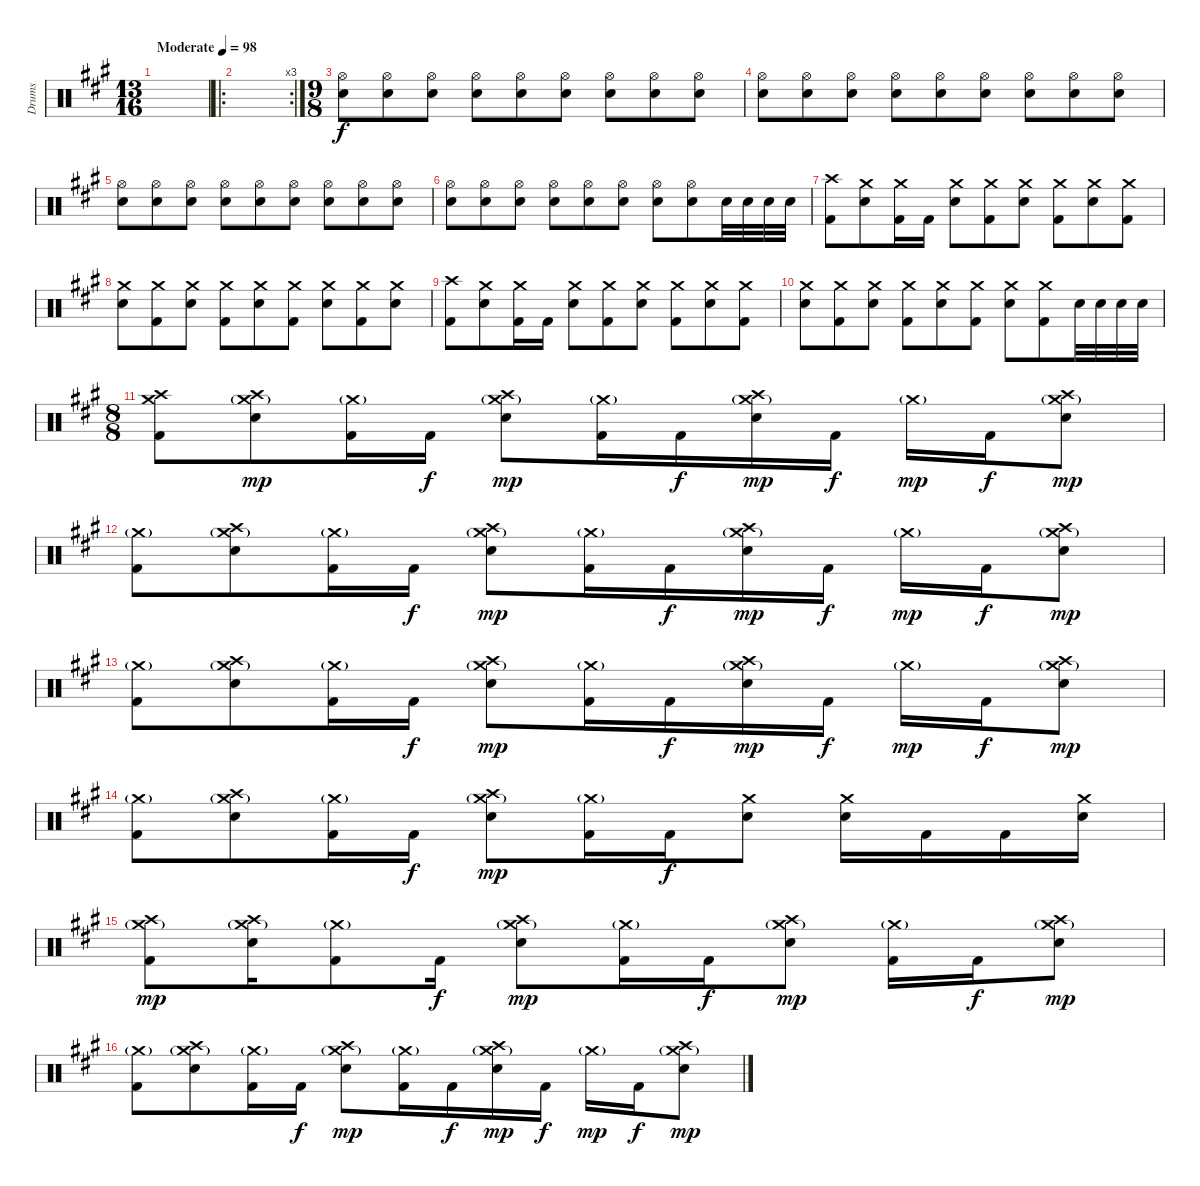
\track ("Drums" "Drums") {instrument percussion}
\staff {score}
\articulation defaults
\ts (13 16)
\tempo (98 "Moderate")
\clef neutral
\ks a
|
\ro
\rc 3
|
\ts (9 8)
("Hi-Hat (open)" "Snare (hit) 2").8 ("Hi-Hat (open)" "Snare (hit) 2").8 ("Hi-Hat (open)" "Snare (hit) 2").8 ("Hi-Hat (open)" "Snare (hit) 2").8 ("Hi-Hat (open)" "Snare (hit) 2").8 ("Hi-Hat (open)" "Snare (hit) 2").8 ("Hi-Hat (open)" "Snare (hit) 2").8 ("Hi-Hat (open)" "Snare (hit) 2").8 ("Hi-Hat (open)" "Snare (hit) 2").8 |
("Hi-Hat (open)" "Snare (hit) 2").8 ("Hi-Hat (open)" "Snare (hit) 2").8 ("Hi-Hat (open)" "Snare (hit) 2").8 ("Hi-Hat (open)" "Snare (hit) 2").8 ("Hi-Hat (open)" "Snare (hit) 2").8 ("Hi-Hat (open)" "Snare (hit) 2").8 ("Hi-Hat (open)" "Snare (hit) 2").8 ("Hi-Hat (open)" "Snare (hit) 2").8 ("Hi-Hat (open)" "Snare (hit) 2").8 |
("Hi-Hat (open)" "Snare (hit) 2").8 ("Hi-Hat (open)" "Snare (hit) 2").8 ("Hi-Hat (open)" "Snare (hit) 2").8 ("Hi-Hat (open)" "Snare (hit) 2").8 ("Hi-Hat (open)" "Snare (hit) 2").8 ("Hi-Hat (open)" "Snare (hit) 2").8 ("Hi-Hat (open)" "Snare (hit) 2").8 ("Hi-Hat (open)" "Snare (hit) 2").8 ("Hi-Hat (open)" "Snare (hit) 2").8 |
("Hi-Hat (open)" "Snare (hit) 2").8 ("Hi-Hat (open)" "Snare (hit) 2").8 ("Hi-Hat (open)" "Snare (hit) 2").8 ("Hi-Hat (open)" "Snare (hit) 2").8 ("Hi-Hat (open)" "Snare (hit) 2").8 ("Hi-Hat (open)" "Snare (hit) 2").8 ("Hi-Hat (open)" "Snare (hit) 2").8 ("Hi-Hat (open)" "Snare (hit) 2").8 "Snare (hit) 2".32 "Snare (hit) 2".32 "Snare (hit) 2".32 "Snare (hit) 2".32 |
("Crash high (hit)" "Kick (hit) 2").8 ("Crash medium (hit)" "Snare (hit) 2").8 ("Crash medium (hit)" "Kick (hit) 2").16 "Kick (hit) 2".16 ("Crash medium (hit)" "Snare (hit) 2").8 ("Crash medium (hit)" "Kick (hit) 2").8 ("Crash medium (hit)" "Snare (hit) 2").8 ("Crash medium (hit)" "Kick (hit) 2").8 ("Crash medium (hit)" "Snare (hit) 2").8 ("Crash medium (hit)" "Kick (hit) 2").8 |
("Crash medium (hit)" "Snare (hit) 2").8 ("Crash medium (hit)" "Kick (hit) 2").8 ("Crash medium (hit)" "Snare (hit) 2").8 ("Crash medium (hit)" "Kick (hit) 2").8 ("Crash medium (hit)" "Snare (hit) 2").8 ("Crash medium (hit)" "Kick (hit) 2").8 ("Crash medium (hit)" "Snare (hit) 2").8 ("Crash medium (hit)" "Kick (hit) 2").8 ("Crash medium (hit)" "Snare (hit) 2").8 |
("Crash high (hit)" "Kick (hit) 2").8 ("Crash medium (hit)" "Snare (hit) 2").8 ("Crash medium (hit)" "Kick (hit) 2").16 "Kick (hit) 2".16 ("Crash medium (hit)" "Snare (hit) 2").8 ("Crash medium (hit)" "Kick (hit) 2").8 ("Crash medium (hit)" "Snare (hit) 2").8 ("Crash medium (hit)" "Kick (hit) 2").8 ("Crash medium (hit)" "Snare (hit) 2").8 ("Crash medium (hit)" "Kick (hit) 2").8 |
("Crash medium (hit)" "Snare (hit) 2").8 ("Crash medium (hit)" "Kick (hit) 2").8 ("Crash medium (hit)" "Snare (hit) 2").8 ("Crash medium (hit)" "Kick (hit) 2").8 ("Crash medium (hit)" "Snare (hit) 2").8 ("Crash medium (hit)" "Kick (hit) 2").8 ("Crash medium (hit)" "Snare (hit) 2").8 ("Crash medium (hit)" "Kick (hit) 2").8 "Snare (hit) 2".32 "Snare (hit) 2".32 "Snare (hit) 2".32 "Snare (hit) 2".32 |
\ts (8 8)
("Crash high (hit)" "Crash medium (hit)" "Kick (hit) 2").8 ("Crash high (hit)" "Crash medium (hit)"{g} "Snare (hit) 2").8{dy mp} ("Crash medium (hit)"{g} "Kick (hit) 2").16 "Kick (hit) 2".16{dy f} ("Crash high (hit)" "Crash medium (hit)"{g} "Snare (hit) 2").8{dy mp} ("Crash medium (hit)"{g} "Kick (hit) 2").16 "Kick (hit) 2".16{dy f} ("Crash high (hit)" "Crash medium (hit)"{g} "Snare (hit) 2").16{dy mp} "Kick (hit) 2".16{dy f} "Crash medium (hit)"{g}.16{dy mp} "Kick (hit) 2".16{dy f} ("Crash high (hit)" "Crash medium (hit)"{g} "Snare (hit) 2").8{dy mp} |
("Crash medium (hit)"{g} "Kick (hit) 2").8 ("Crash high (hit)" "Crash medium (hit)"{g} "Snare (hit) 2").8 ("Crash medium (hit)"{g} "Kick (hit) 2").16 "Kick (hit) 2".16{dy f} ("Crash high (hit)" "Crash medium (hit)"{g} "Snare (hit) 2").8{dy mp} ("Crash medium (hit)"{g} "Kick (hit) 2").16 "Kick (hit) 2".16{dy f} ("Crash high (hit)" "Crash medium (hit)"{g} "Snare (hit) 2").16{dy mp} "Kick (hit) 2".16{dy f} "Crash medium (hit)"{g}.16{dy mp} "Kick (hit) 2".16{dy f} ("Crash high (hit)" "Crash medium (hit)"{g} "Snare (hit) 2").8{dy mp} |
("Crash medium (hit)"{g} "Kick (hit) 2").8 ("Crash high (hit)" "Crash medium (hit)"{g} "Snare (hit) 2").8 ("Crash medium (hit)"{g} "Kick (hit) 2").16 "Kick (hit) 2".16{dy f} ("Crash high (hit)" "Crash medium (hit)"{g} "Snare (hit) 2").8{dy mp} ("Crash medium (hit)"{g} "Kick (hit) 2").16 "Kick (hit) 2".16{dy f} ("Crash high (hit)" "Crash medium (hit)"{g} "Snare (hit) 2").16{dy mp} "Kick (hit) 2".16{dy f} "Crash medium (hit)"{g}.16{dy mp} "Kick (hit) 2".16{dy f} ("Crash high (hit)" "Crash medium (hit)"{g} "Snare (hit) 2").8{dy mp} |
("Crash medium (hit)"{g} "Kick (hit) 2").8 ("Crash high (hit)" "Crash medium (hit)"{g} "Snare (hit) 2").8 ("Crash medium (hit)"{g} "Kick (hit) 2").16 "Kick (hit) 2".16{dy f} ("Crash high (hit)" "Crash medium (hit)"{g} "Snare (hit) 2").8{dy mp} ("Crash medium (hit)"{g} "Kick (hit) 2").16 "Kick (hit) 2".16{dy f} ("Crash medium (hit)" "Snare (hit) 2").8 ("Crash medium (hit)" "Snare (hit) 2").16 "Kick (hit) 2".16 "Kick (hit) 2".16 ("Crash medium (hit)" "Snare (hit) 2").16 |
("Crash high (hit)" "Crash medium (hit)"{g} "Kick (hit) 2").8{dy mp} ("Crash high (hit)" "Crash medium (hit)"{g} "Snare (hit) 2").16 ("Crash medium (hit)"{g} "Kick (hit) 2").8 "Kick (hit) 2".16{dy f} ("Crash high (hit)" "Crash medium (hit)"{g} "Snare (hit) 2").8{dy mp} ("Crash medium (hit)"{g} "Kick (hit) 2").16 "Kick (hit) 2".16{dy f} ("Crash high (hit)" "Crash medium (hit)"{g} "Snare (hit) 2").8{dy mp} ("Crash medium (hit)"{g} "Kick (hit) 2").16 "Kick (hit) 2".16{dy f} ("Crash high (hit)" "Crash medium (hit)"{g} "Snare (hit) 2").8{dy mp} |
("Crash medium (hit)"{g} "Kick (hit) 2").8 ("Crash high (hit)" "Crash medium (hit)"{g} "Snare (hit) 2").8 ("Crash medium (hit)"{g} "Kick (hit) 2").16 "Kick (hit) 2".16{dy f} ("Crash high (hit)" "Crash medium (hit)"{g} "Snare (hit) 2").8{dy mp} ("Crash medium (hit)"{g} "Kick (hit) 2").16 "Kick (hit) 2".16{dy f} ("Crash high (hit)" "Crash medium (hit)"{g} "Snare (hit) 2").16{dy mp} "Kick (hit) 2".16{dy f} "Crash medium (hit)"{g}.16{dy mp} "Kick (hit) 2".16{dy f} ("Crash high (hit)" "Crash medium (hit)"{g} "Snare (hit) 2").8{dy mp}
